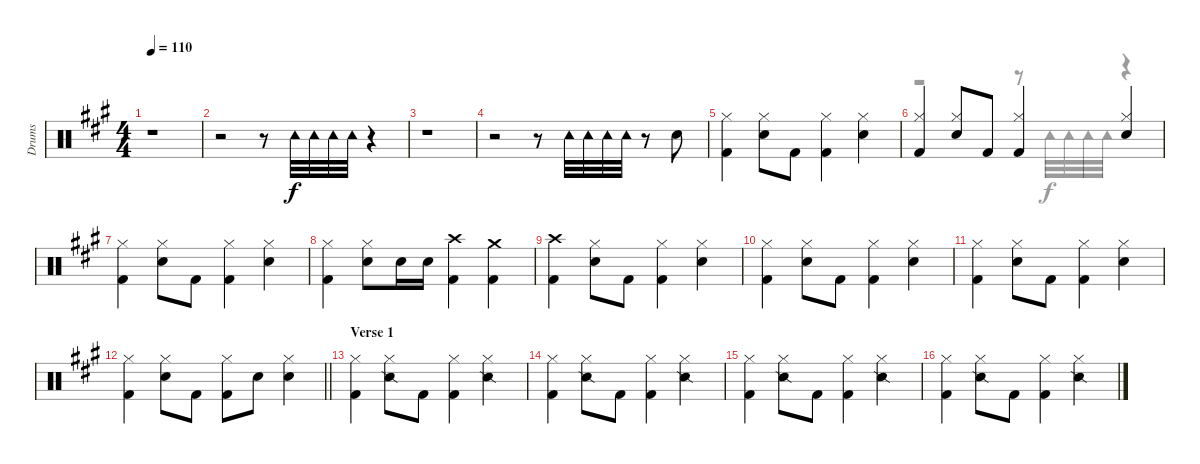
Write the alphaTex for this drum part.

\track ("Drums" "Drums") {instrument percussion}
\staff {score}
\articulation defaults
\voice
\ts (4 4)
\tempo 110
\clef neutral
\ks a
r.1{dy f} |
r.2 r.8 "Tambourine (hit)".32 "Tambourine (hit)".32 "Tambourine (hit)".32 "Tambourine (hit)".32 r.4 |
r.1 |
r.2 r.8 "Tambourine (hit)".32 "Tambourine (hit)".32 "Tambourine (hit)".32 "Tambourine (hit)".32 r.8 "Snare (hit) 2".8 |
("Hi-Hat (closed)" "Kick (hit) 2").4 ("Hi-Hat (closed)" "Snare (hit) 2").8 "Kick (hit) 2".8 ("Hi-Hat (closed)" "Kick (hit) 2").4 ("Hi-Hat (closed)" "Snare (hit) 2").4 |
("Hi-Hat (closed)" "Kick (hit) 2").4 ("Hi-Hat (closed)" "Snare (hit) 2").8 "Kick (hit) 2".8 ("Hi-Hat (closed)" "Kick (hit) 2").4 ("Hi-Hat (closed)" "Snare (hit) 2").4 |
("Hi-Hat (closed)" "Kick (hit) 2").4 ("Hi-Hat (closed)" "Snare (hit) 2").8 "Kick (hit) 2".8 ("Hi-Hat (closed)" "Kick (hit) 2").4 ("Hi-Hat (closed)" "Snare (hit) 2").4 |
("Hi-Hat (closed)" "Kick (hit) 2").4 ("Hi-Hat (closed)" "Snare (hit) 2").8 "Snare (hit) 2".16 "Snare (hit) 2".16 ("Crash high (hit)" "Kick (hit) 2").4 ("Crash medium (hit)" "Kick (hit) 2").4 |
("Crash high (hit)" "Kick (hit) 2").4 ("Hi-Hat (closed)" "Snare (hit) 2").8 "Kick (hit) 2".8 ("Hi-Hat (closed)" "Kick (hit) 2").4 ("Hi-Hat (closed)" "Snare (hit) 2").4 |
("Hi-Hat (closed)" "Kick (hit) 2").4 ("Hi-Hat (closed)" "Snare (hit) 2").8 "Kick (hit) 2".8 ("Hi-Hat (closed)" "Kick (hit) 2").4 ("Hi-Hat (closed)" "Snare (hit) 2").4 |
("Hi-Hat (closed)" "Kick (hit) 2").4 ("Hi-Hat (closed)" "Snare (hit) 2").8 "Kick (hit) 2".8 ("Hi-Hat (closed)" "Kick (hit) 2").4 ("Hi-Hat (closed)" "Snare (hit) 2").4 |
\barLineRight lightlight
("Hi-Hat (closed)" "Kick (hit) 2").4 ("Hi-Hat (closed)" "Snare (hit) 2").8 "Kick (hit) 2".8 ("Hi-Hat (closed)" "Kick (hit) 2").8 "Snare (hit) 2".8 ("Hi-Hat (closed)" "Snare (hit) 2").4 |
\section ("" "Verse 1")
("Hi-Hat (closed)" "Kick (hit) 2").4 ("Hi-Hat (closed)" "Snare (side stick) 2").8 "Kick (hit) 2".8 ("Hi-Hat (closed)" "Kick (hit) 2").4 ("Hi-Hat (closed)" "Snare (side stick) 2").4 |
("Hi-Hat (closed)" "Kick (hit) 2").4 ("Hi-Hat (closed)" "Snare (side stick) 2").8 "Kick (hit) 2".8 ("Hi-Hat (closed)" "Kick (hit) 2").4 ("Hi-Hat (closed)" "Snare (side stick) 2").4 |
("Hi-Hat (closed)" "Kick (hit) 2").4 ("Hi-Hat (closed)" "Snare (side stick) 2").8 "Kick (hit) 2".8 ("Hi-Hat (closed)" "Kick (hit) 2").4 ("Hi-Hat (closed)" "Snare (side stick) 2").4 |
("Hi-Hat (closed)" "Kick (hit) 2").4 ("Hi-Hat (closed)" "Snare (side stick) 2").8 "Kick (hit) 2".8 ("Hi-Hat (closed)" "Kick (hit) 2").4 ("Hi-Hat (closed)" "Snare (side stick) 2").4
\voice
\clef neutral
\ottava regular
\simile none
\ks a
|
|
|
|
|
r.2 r.8 "Tambourine (hit)".32 "Tambourine (hit)".32 "Tambourine (hit)".32 "Tambourine (hit)".32 r.4 |
|
|
|
|
|
\barLineRight lightlight
|
|
|
|
